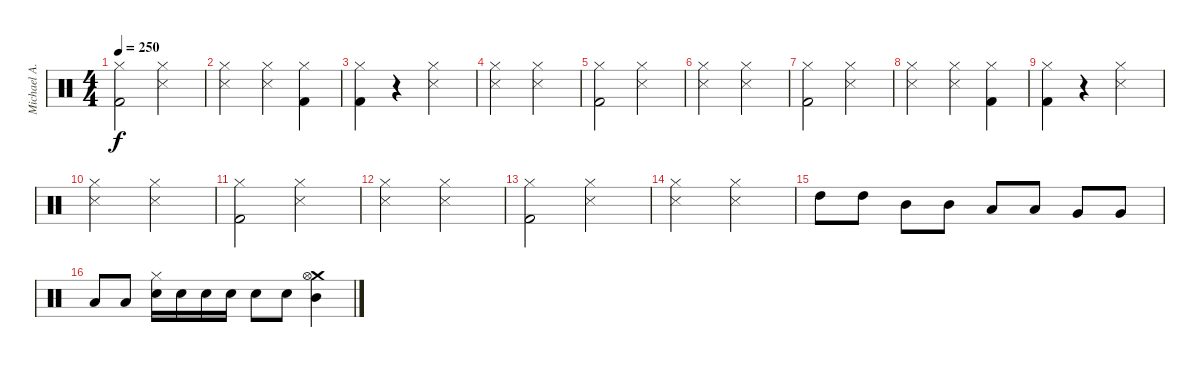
\track ("Michael A." "Michael A.") {instrument percussion}
\staff {score}
\articulation defaults
\ts (4 4)
\tempo 250
\clef neutral
\ks c
("Hi-Hat (closed)" "Kick (hit) 2").2{dy f} ("Hi-Hat (closed)" "Snare (side stick) 3").2 |
("Hi-Hat (closed)" "Snare (side stick) 3").2 ("Hi-Hat (closed)" "Snare (side stick) 3").4 ("Hi-Hat (closed)" "Kick (hit) 2").4 |
("Hi-Hat (closed)" "Kick (hit) 2").4 r.4 ("Hi-Hat (closed)" "Snare (side stick) 3").2 |
("Hi-Hat (closed)" "Snare (side stick) 3").2 ("Hi-Hat (closed)" "Snare (side stick) 3").2 |
("Hi-Hat (closed)" "Kick (hit) 2").2 ("Hi-Hat (closed)" "Snare (side stick) 3").2 |
("Hi-Hat (closed)" "Snare (side stick) 3").2 ("Hi-Hat (closed)" "Snare (side stick) 3").2 |
("Hi-Hat (closed)" "Kick (hit) 2").2 ("Hi-Hat (closed)" "Snare (side stick) 3").2 |
("Hi-Hat (closed)" "Snare (side stick) 3").2 ("Hi-Hat (closed)" "Snare (side stick) 3").4 ("Hi-Hat (closed)" "Kick (hit) 2").4 |
("Hi-Hat (closed)" "Kick (hit) 2").4 r.4 ("Hi-Hat (closed)" "Snare (side stick) 3").2 |
("Hi-Hat (closed)" "Snare (side stick) 3").2 ("Hi-Hat (closed)" "Snare (side stick) 3").2 |
("Hi-Hat (closed)" "Kick (hit) 2").2 ("Hi-Hat (closed)" "Snare (side stick) 3").2 |
("Hi-Hat (closed)" "Snare (side stick) 3").2 ("Hi-Hat (closed)" "Snare (side stick) 3").2 |
("Hi-Hat (closed)" "Kick (hit) 2").2 ("Hi-Hat (closed)" "Snare (side stick) 3").2 |
("Hi-Hat (closed)" "Snare (side stick) 3").2 ("Hi-Hat (closed)" "Snare (side stick) 3").2 |
"High Tom (hit)".8 "High Tom (hit)".8 "Mid Tom (hit)".8 "Mid Tom (hit)".8 "Low Tom (hit)".8 "Low Tom (hit)".8 "Very Low Tom (hit)".8 "Very Low Tom (hit)".8 |
"Low Floor Tom (hit)".8 "Low Floor Tom (hit)".8 ("Hi-Hat (closed)" "Electric Snare (hit)").16 "Electric Snare (hit)".16 "Electric Snare (hit)".16 "Electric Snare (hit)".16 "Electric Snare (hit)".8 "Electric Snare (hit)".8 ("Crash medium (hit)" "Hi-Hat (open)" "Mid Tom (hit)").4
